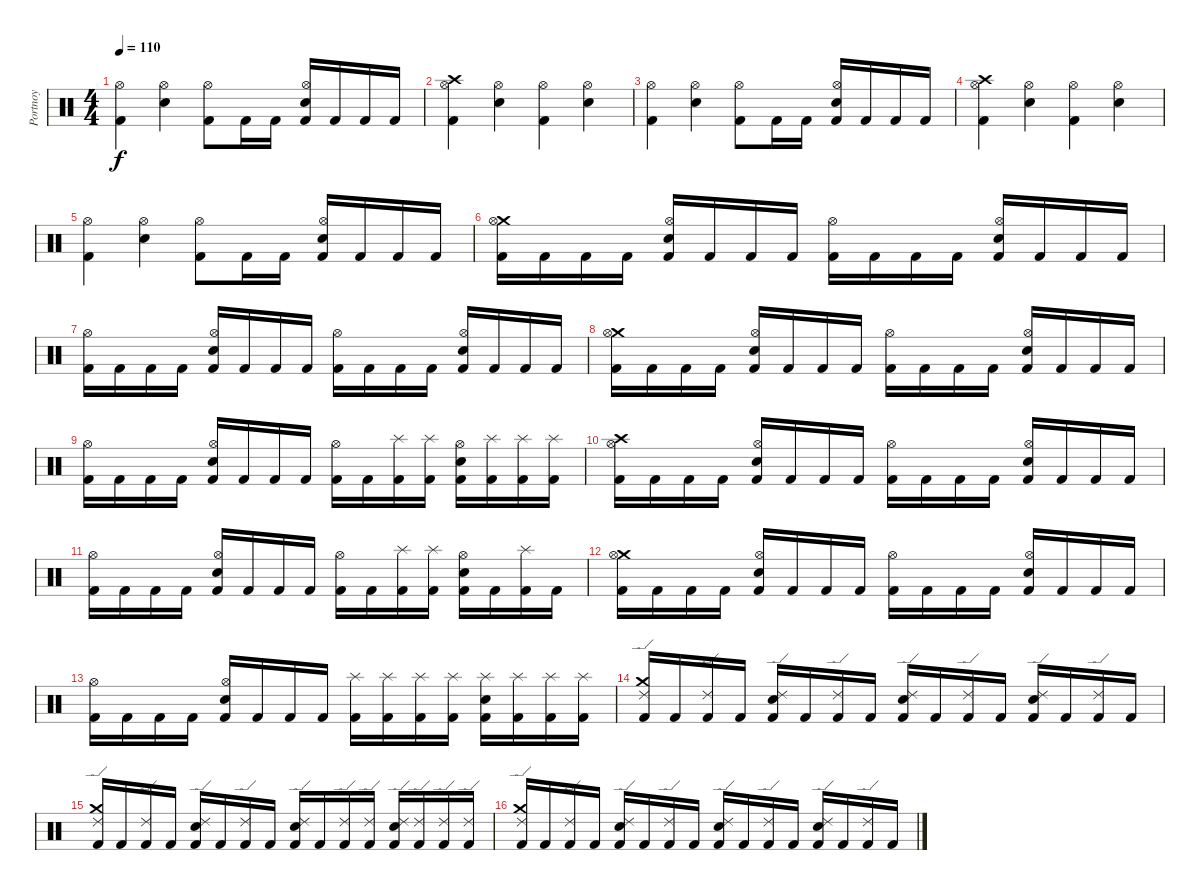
\track ("Portnoy" "Portnoy") {instrument percussion}
\staff {score}
\articulation defaults
\ts (4 4)
\tempo 110
\clef neutral
\ks c
("Kick (hit) 2" "Hi-Hat (open)").4{dy f} ("Hi-Hat (open)" "Snare (hit) 2").4 ("Kick (hit) 2" "Hi-Hat (open)").8 "Kick (hit) 2".16 "Kick (hit) 2".16 ("Kick (hit) 2" "Hi-Hat (open)" "Snare (hit) 2").16 "Kick (hit) 2".16 "Kick (hit) 2".16 "Kick (hit) 2".16 |
("Kick (hit) 2" "Crash high (hit)" "Hi-Hat (open)").4 ("Hi-Hat (open)" "Snare (hit) 2").4 ("Kick (hit) 2" "Hi-Hat (open)").4 ("Hi-Hat (open)" "Snare (hit) 2").4 |
("Kick (hit) 2" "Hi-Hat (open)").4 ("Hi-Hat (open)" "Snare (hit) 2").4 ("Kick (hit) 2" "Hi-Hat (open)").8 "Kick (hit) 2".16 "Kick (hit) 2".16 ("Kick (hit) 2" "Hi-Hat (open)" "Snare (hit) 2").16 "Kick (hit) 2".16 "Kick (hit) 2".16 "Kick (hit) 2".16 |
("Kick (hit) 2" "Crash high (hit)" "Hi-Hat (open)").4 ("Hi-Hat (open)" "Snare (hit) 2").4 ("Kick (hit) 2" "Hi-Hat (open)").4 ("Hi-Hat (open)" "Snare (hit) 2").4 |
("Kick (hit) 2" "Hi-Hat (open)").4 ("Hi-Hat (open)" "Snare (hit) 2").4 ("Kick (hit) 2" "Hi-Hat (open)").8 "Kick (hit) 2".16 "Kick (hit) 2".16 ("Kick (hit) 2" "Hi-Hat (open)" "Snare (hit) 2").16 "Kick (hit) 2".16 "Kick (hit) 2".16 "Kick (hit) 2".16 |
("Kick (hit) 2" "Crash medium (hit)" "Hi-Hat (open)").16 "Kick (hit) 2".16 "Kick (hit) 2".16 "Kick (hit) 2".16 ("Kick (hit) 2" "Hi-Hat (open)" "Snare (hit) 2").16 "Kick (hit) 2".16 "Kick (hit) 2".16 "Kick (hit) 2".16 ("Kick (hit) 2" "Hi-Hat (open)").16 "Kick (hit) 2".16 "Kick (hit) 2".16 "Kick (hit) 2".16 ("Kick (hit) 2" "Hi-Hat (open)" "Snare (hit) 2").16 "Kick (hit) 2".16 "Kick (hit) 2".16 "Kick (hit) 2".16 |
("Kick (hit) 2" "Hi-Hat (open)").16 "Kick (hit) 2".16 "Kick (hit) 2".16 "Kick (hit) 2".16 ("Kick (hit) 2" "Hi-Hat (open)" "Snare (hit) 2").16 "Kick (hit) 2".16 "Kick (hit) 2".16 "Kick (hit) 2".16 ("Kick (hit) 2" "Hi-Hat (open)").16 "Kick (hit) 2".16 "Kick (hit) 2".16 "Kick (hit) 2".16 ("Kick (hit) 2" "Hi-Hat (open)" "Snare (hit) 2").16 "Kick (hit) 2".16 "Kick (hit) 2".16 "Kick (hit) 2".16 |
("Kick (hit) 2" "Crash medium (hit)" "Hi-Hat (open)").16 "Kick (hit) 2".16 "Kick (hit) 2".16 "Kick (hit) 2".16 ("Kick (hit) 2" "Hi-Hat (open)" "Snare (hit) 2").16 "Kick (hit) 2".16 "Kick (hit) 2".16 "Kick (hit) 2".16 ("Kick (hit) 2" "Hi-Hat (open)").16 "Kick (hit) 2".16 "Kick (hit) 2".16 "Kick (hit) 2".16 ("Kick (hit) 2" "Hi-Hat (open)" "Snare (hit) 2").16 "Kick (hit) 2".16 "Kick (hit) 2".16 "Kick (hit) 2".16 |
("Kick (hit) 2" "Hi-Hat (open)").16 "Kick (hit) 2".16 "Kick (hit) 2".16 "Kick (hit) 2".16 ("Kick (hit) 2" "Hi-Hat (open)" "Snare (hit) 2").16 "Kick (hit) 2".16 "Kick (hit) 2".16 "Kick (hit) 2".16 ("Kick (hit) 2" "Hi-Hat (open)").16 "Kick (hit) 2".16 ("Kick (hit) 2" "Splash (hit)").16 ("Kick (hit) 2" "Splash (hit)").16 ("Kick (hit) 2" "Hi-Hat (open)" "Snare (hit) 2").16 ("Kick (hit) 2" "Splash (hit)").16 ("Kick (hit) 2" "Splash (hit)").16 ("Kick (hit) 2" "Splash (hit)").16 |
("Kick (hit) 2" "Crash high (hit)" "Hi-Hat (open)").16 "Kick (hit) 2".16 "Kick (hit) 2".16 "Kick (hit) 2".16 ("Kick (hit) 2" "Hi-Hat (open)" "Snare (hit) 2").16 "Kick (hit) 2".16 "Kick (hit) 2".16 "Kick (hit) 2".16 ("Kick (hit) 2" "Hi-Hat (open)").16 "Kick (hit) 2".16 "Kick (hit) 2".16 "Kick (hit) 2".16 ("Kick (hit) 2" "Hi-Hat (open)" "Snare (hit) 2").16 "Kick (hit) 2".16 "Kick (hit) 2".16 "Kick (hit) 2".16 |
("Kick (hit) 2" "Hi-Hat (open)").16 "Kick (hit) 2".16 "Kick (hit) 2".16 "Kick (hit) 2".16 ("Kick (hit) 2" "Hi-Hat (open)" "Snare (hit) 2").16 "Kick (hit) 2".16 "Kick (hit) 2".16 "Kick (hit) 2".16 ("Kick (hit) 2" "Hi-Hat (open)").16 "Kick (hit) 2".16 ("Kick (hit) 2" "Splash (hit)").16 ("Kick (hit) 2" "Splash (hit)").16 ("Kick (hit) 2" "Hi-Hat (open)" "Snare (hit) 2").16 "Kick (hit) 2".16 ("Kick (hit) 2" "Splash (hit)").16 "Kick (hit) 2".16 |
("Kick (hit) 2" "Crash medium (hit)" "Hi-Hat (open)").16 "Kick (hit) 2".16 "Kick (hit) 2".16 "Kick (hit) 2".16 ("Kick (hit) 2" "Hi-Hat (open)" "Snare (hit) 2").16 "Kick (hit) 2".16 "Kick (hit) 2".16 "Kick (hit) 2".16 ("Kick (hit) 2" "Hi-Hat (open)").16 "Kick (hit) 2".16 "Kick (hit) 2".16 "Kick (hit) 2".16 ("Kick (hit) 2" "Hi-Hat (open)" "Snare (hit) 2").16 "Kick (hit) 2".16 "Kick (hit) 2".16 "Kick (hit) 2".16 |
("Kick (hit) 2" "Hi-Hat (open)").16 "Kick (hit) 2".16 "Kick (hit) 2".16 "Kick (hit) 2".16 ("Kick (hit) 2" "Hi-Hat (open)" "Snare (hit) 2").16 "Kick (hit) 2".16 "Kick (hit) 2".16 "Kick (hit) 2".16 ("Kick (hit) 2" "Splash (hit)").16 ("Kick (hit) 2" "Splash (hit)").16 ("Kick (hit) 2" "Splash (hit)").16 ("Kick (hit) 2" "Splash (hit)").16 ("Kick (hit) 2" "Splash (hit)" "Snare (hit) 2").16 ("Kick (hit) 2" "Splash (hit)").16 ("Kick (hit) 2" "Splash (hit)").16 ("Kick (hit) 2" "Splash (hit)").16 |
("Kick (hit) 2" "Crash medium (hit)" "Ride (edge) 2").16 "Kick (hit) 2".16 ("Kick (hit) 2" "Ride (edge) 2").16 "Kick (hit) 2".16 ("Kick (hit) 2" "Ride (edge) 2" "Snare (hit) 2").16 "Kick (hit) 2".16 ("Kick (hit) 2" "Ride (edge) 2").16 "Kick (hit) 2".16 ("Kick (hit) 2" "Ride (edge) 2" "Snare (hit) 2").16 "Kick (hit) 2".16 ("Kick (hit) 2" "Ride (edge) 2").16 "Kick (hit) 2".16 ("Kick (hit) 2" "Ride (edge) 2" "Snare (hit) 2").16 "Kick (hit) 2".16 ("Kick (hit) 2" "Ride (edge) 2").16 "Kick (hit) 2".16 |
("Kick (hit) 2" "Crash medium (hit)" "Ride (edge) 2").16 "Kick (hit) 2".16 ("Kick (hit) 2" "Ride (edge) 2").16 "Kick (hit) 2".16 ("Kick (hit) 2" "Ride (edge) 2" "Snare (hit) 2").16 "Kick (hit) 2".16 ("Kick (hit) 2" "Ride (edge) 2").16 "Kick (hit) 2".16 ("Kick (hit) 2" "Ride (edge) 2" "Snare (hit) 2").16 "Kick (hit) 2".16 ("Kick (hit) 2" "Ride (edge) 2").16 ("Kick (hit) 2" "Ride (edge) 2").16 ("Kick (hit) 2" "Ride (edge) 2" "Snare (hit) 2").16 ("Kick (hit) 2" "Ride (edge) 2").16 ("Kick (hit) 2" "Ride (edge) 2").16 ("Kick (hit) 2" "Ride (edge) 2").16 |
("Kick (hit) 2" "Crash medium (hit)" "Ride (edge) 2").16 "Kick (hit) 2".16 ("Kick (hit) 2" "Ride (edge) 2").16 "Kick (hit) 2".16 ("Kick (hit) 2" "Ride (edge) 2" "Snare (hit) 2").16 "Kick (hit) 2".16 ("Kick (hit) 2" "Ride (edge) 2").16 "Kick (hit) 2".16 ("Kick (hit) 2" "Ride (edge) 2" "Snare (hit) 2").16 "Kick (hit) 2".16 ("Kick (hit) 2" "Ride (edge) 2").16 "Kick (hit) 2".16 ("Kick (hit) 2" "Ride (edge) 2" "Snare (hit) 2").16 "Kick (hit) 2".16 ("Kick (hit) 2" "Ride (edge) 2").16 "Kick (hit) 2".16
